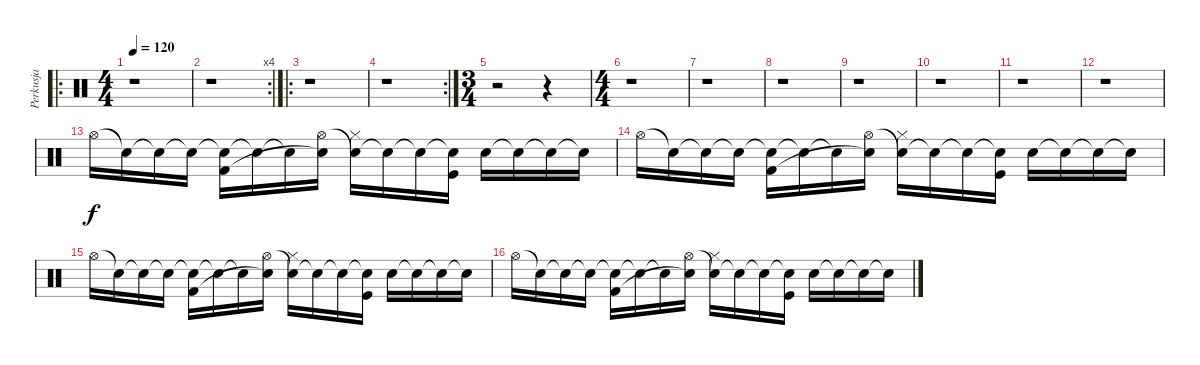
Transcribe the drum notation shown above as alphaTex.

\track ("Perkusja" "Perkusja") {instrument percussion}
\staff {score}
\articulation defaults
\ro
\ts (4 4)
\tempo 120
\clef neutral
\ks c
r.1{dy f} |
\rc 4
r.1 |
\ro
r.1 |
\rc 2
r.1 |
\ts (3 4)
r.2 r.4 |
\ts (4 4)
r.1 |
r.1 |
r.1 |
r.1 |
r.1 |
r.1 |
r.1 |
"Hi-Hat (open)".16 "Snare (hit)"{t}.16 "Snare (hit)"{t}.16 "Snare (hit)"{t}.16 ("Snare (hit)"{t} "Kick (hit) 2").16 "Snare (hit)"{t}.16 "Snare (hit)"{t}.16 ("Hi-Hat (open)" "Snare (hit)"{t}).16 ("Snare (hit)"{t} "Hi-Hat (closed)").16 "Snare (hit)"{t}.16 "Snare (hit)"{t}.16 ("Snare (hit)"{t} "Kick (hit)").16 "Electric Snare (hit)".16 "Snare (hit)"{t}.16 "Snare (hit)"{t}.16 "Snare (hit)"{t}.16 |
"Hi-Hat (open)".16 "Snare (hit)"{t}.16 "Snare (hit)"{t}.16 "Snare (hit)"{t}.16 ("Snare (hit)"{t} "Kick (hit) 2").16 "Snare (hit)"{t}.16 "Snare (hit)"{t}.16 ("Hi-Hat (open)" "Snare (hit)"{t}).16 ("Snare (hit)"{t} "Hi-Hat (closed)").16 "Snare (hit)"{t}.16 "Snare (hit)"{t}.16 ("Snare (hit)"{t} "Kick (hit)").16 "Electric Snare (hit)".16 "Snare (hit)"{t}.16 "Snare (hit)"{t}.16 "Snare (hit)"{t}.16 |
"Hi-Hat (open)".16 "Snare (hit)"{t}.16 "Snare (hit)"{t}.16 "Snare (hit)"{t}.16 ("Snare (hit)"{t} "Kick (hit) 2").16 "Snare (hit)"{t}.16 "Snare (hit)"{t}.16 ("Hi-Hat (open)" "Snare (hit)"{t}).16 ("Snare (hit)"{t} "Hi-Hat (closed)").16 "Snare (hit)"{t}.16 "Snare (hit)"{t}.16 ("Snare (hit)"{t} "Kick (hit)").16 "Electric Snare (hit)".16 "Snare (hit)"{t}.16 "Snare (hit)"{t}.16 "Snare (hit)"{t}.16 |
"Hi-Hat (open)".16 "Snare (hit)"{t}.16 "Snare (hit)"{t}.16 "Snare (hit)"{t}.16 ("Snare (hit)"{t} "Kick (hit) 2").16 "Snare (hit)"{t}.16 "Snare (hit)"{t}.16 ("Hi-Hat (open)" "Snare (hit)"{t}).16 ("Snare (hit)"{t} "Hi-Hat (closed)").16 "Snare (hit)"{t}.16 "Snare (hit)"{t}.16 ("Snare (hit)"{t} "Kick (hit)").16 "Electric Snare (hit)".16 "Snare (hit)"{t}.16 "Snare (hit)"{t}.16 "Snare (hit)"{t}.16
